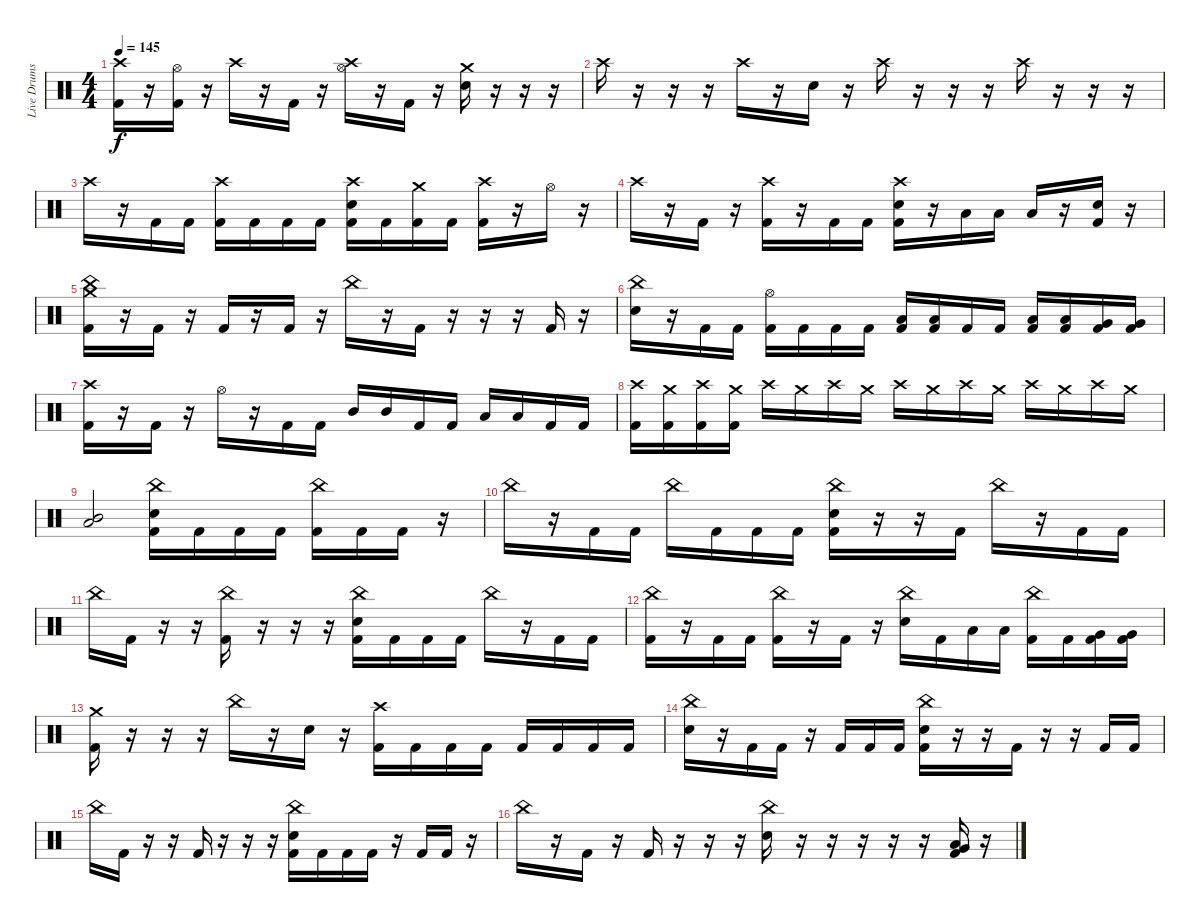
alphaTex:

\track ("Live Drums" "Live Drums") {instrument percussion}
\staff {score}
\articulation defaults
\ts (4 4)
\tempo 145
\clef neutral
\ks c
("Crash high (hit)" "Kick (hit) 2").16{dy f} r.16 ("Hi-Hat (open)" "Kick (hit) 2").16 r.16 "Crash high (hit)".16 r.16 "Kick (hit) 2".16 r.16 ("Crash high (hit)" "Hi-Hat (open)").16 r.16 "Kick (hit) 2".16 r.16 ("Crash medium (hit)" "Snare (hit) 2").16 r.16 r.16 r.16 |
"Crash high (hit)".16 r.16 r.16 r.16 "Crash high (hit)".16 r.16 "Snare (hit) 2".16 r.16 "Crash high (hit)".16 r.16 r.16 r.16 "Crash high (hit)".16 r.16 r.16 r.16 |
"Crash high (hit)".16 r.16 "Kick (hit) 2".16 "Kick (hit) 2".16 ("Crash high (hit)" "Kick (hit) 2").16 "Kick (hit) 2".16 "Kick (hit) 2".16 "Kick (hit) 2".16 ("Crash high (hit)" "Snare (hit) 2" "Kick (hit) 2").16 "Kick (hit) 2".16 ("Crash medium (hit)" "Kick (hit) 2").16 "Kick (hit) 2".16 ("Crash high (hit)" "Kick (hit) 2").16 r.16 "Hi-Hat (open)".16 r.16 |
"Crash high (hit)".16 r.16 "Kick (hit) 2".16 r.16 ("Crash high (hit)" "Kick (hit) 2").16 r.16 "Kick (hit) 2".16 "Kick (hit) 2".16 ("Crash high (hit)" "Snare (hit) 2" "Kick (hit) 2").16 r.16 "Low Tom (hit)".16 "Low Tom (hit)".16 "Low Tom (hit)".16 r.16 ("Snare (hit) 2" "Kick (hit) 2").16 r.16 |
("China (hit)" "Crash medium (hit)" "Kick (hit) 2").16 r.16 "Kick (hit) 2".16 r.16 "Kick (hit) 2".16 r.16 "Kick (hit) 2".16 r.16 "China (hit)".16 r.16 "Kick (hit) 2".16 r.16 r.16 r.16 "Kick (hit) 2".16 r.16 |
("China (hit)" "Snare (hit) 2").16 r.16 "Kick (hit) 2".16 "Kick (hit) 2".16 ("Hi-Hat (open)" "Kick (hit) 2").16 "Kick (hit) 2".16 "Kick (hit) 2".16 "Kick (hit) 2".16 ("Low Tom (hit)" "Kick (hit) 2").16 ("Low Tom (hit)" "Kick (hit) 2").16 "Kick (hit) 2".16 "Kick (hit) 2".16 ("Low Tom (hit)" "Kick (hit) 2").16 ("Low Tom (hit)" "Kick (hit) 2").16 ("Very Low Tom (hit)" "Kick (hit) 2").16 ("Very Low Tom (hit)" "Kick (hit) 2").16 |
("Crash high (hit)" "Kick (hit) 2").16 r.16 "Kick (hit) 2".16 r.16 "Hi-Hat (open)".16 r.16 "Kick (hit) 2".16 "Kick (hit) 2".16 "Mid Tom (hit)".16 "Mid Tom (hit)".16 "Kick (hit) 2".16 "Kick (hit) 2".16 "Low Tom (hit)".16 "Low Tom (hit)".16 "Kick (hit) 2".16 "Kick (hit) 2".16 |
("Crash high (hit)" "Kick (hit) 2").16{volume 6} ("Crash medium (hit)" "Kick (hit) 2").16{volume 15} ("Crash high (hit)" "Kick (hit) 2").16 ("Crash medium (hit)" "Kick (hit) 2").16 "Crash high (hit)".16 "Crash medium (hit)".16 "Crash high (hit)".16 "Crash medium (hit)".16 "Crash high (hit)".16 "Crash medium (hit)".16 "Crash high (hit)".16 "Crash medium (hit)".16 "Crash high (hit)".16 "Crash medium (hit)".16 "Crash high (hit)".16 "Crash medium (hit)".16 |
("Mid Tom (hit)" "Low Tom (hit)").2 ("China (hit)" "Snare (hit) 2" "Kick (hit) 2").16 "Kick (hit) 2".16 "Kick (hit) 2".16 "Kick (hit) 2".16 ("China (hit)" "Kick (hit) 2").16 "Kick (hit) 2".16 "Kick (hit) 2".16 r.16 |
"China (hit)".16 r.16 "Kick (hit) 2".16 "Kick (hit) 2".16 "China (hit)".16 "Kick (hit) 2".16 "Kick (hit) 2".16 "Kick (hit) 2".16 ("China (hit)" "Snare (hit) 2" "Kick (hit) 2").16 r.16 r.16 "Kick (hit) 2".16 "China (hit)".16 r.16 "Kick (hit) 2".16 "Kick (hit) 2".16 |
"China (hit)".16 "Kick (hit) 2".16 r.16 r.16 ("China (hit)" "Kick (hit) 2").16 r.16 r.16 r.16 ("China (hit)" "Snare (hit) 2" "Kick (hit) 2").16 "Kick (hit) 2".16 "Kick (hit) 2".16 "Kick (hit) 2".16 "China (hit)".16 r.16 "Kick (hit) 2".16 "Kick (hit) 2".16 |
("China (hit)" "Kick (hit) 2").16 r.16 "Kick (hit) 2".16 "Kick (hit) 2".16 ("China (hit)" "Kick (hit) 2").16 r.16 "Kick (hit) 2".16 r.16 ("China (hit)" "Snare (hit) 2").16 "Kick (hit) 2".16 "Low Tom (hit)".16 "Low Tom (hit)".16 ("China (hit)" "Kick (hit) 2").16 "Kick (hit) 2".16 ("Very Low Tom (hit)" "Kick (hit) 2").16 ("Very Low Tom (hit)" "Kick (hit) 2").16 |
("Crash medium (hit)" "Kick (hit) 2").16 r.16 r.16 r.16 "China (hit)".16 r.16 "Snare (hit) 2".16 r.16 ("Crash high (hit)" "Kick (hit) 2").16 "Kick (hit) 2".16 "Kick (hit) 2".16 "Kick (hit) 2".16 "Kick (hit) 2".16 "Kick (hit) 2".16 "Kick (hit) 2".16 "Kick (hit) 2".16 |
("China (hit)" "Snare (hit) 2").16 r.16 "Kick (hit) 2".16 "Kick (hit) 2".16 r.16 "Kick (hit) 2".16 "Kick (hit) 2".16 "Kick (hit) 2".16 ("China (hit)" "Snare (hit) 2" "Kick (hit) 2").16 r.16 r.16 "Kick (hit) 2".16 r.16 r.16 "Kick (hit) 2".16 "Kick (hit) 2".16 |
"China (hit)".16 "Kick (hit) 2".16 r.16 r.16 "Kick (hit) 2".16 r.16 r.16 r.16 ("China (hit)" "Snare (hit) 2" "Kick (hit) 2").16 "Kick (hit) 2".16 "Kick (hit) 2".16 "Kick (hit) 2".16 r.16 "Kick (hit) 2".16 "Kick (hit) 2".16 r.16 |
"China (hit)".16 r.16 "Kick (hit) 2".16 r.16 "Kick (hit) 2".16 r.16 r.16 r.16 ("China (hit)" "Snare (hit) 2").16 r.16 r.16 r.16 r.16 r.16 ("Very Low Tom (hit)" "Low Floor Tom (hit)" "Kick (hit) 2").16 r.16
